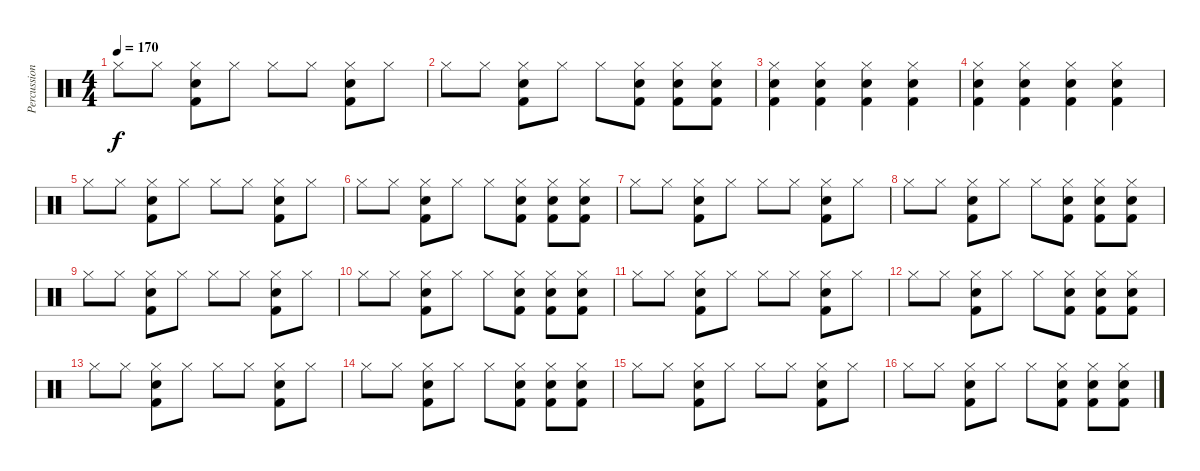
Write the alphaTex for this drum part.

\track ("Percussion" "Percussion") {instrument percussion}
\staff {score}
\articulation defaults
\ts (4 4)
\tempo 170
\clef neutral
\ks c "Hi-Hat (closed)".8{dy f} "Hi-Hat (closed)".8
("Electric Snare (hit)" "Hi-Hat (closed)" "Kick (hit) 2").8 "Hi-Hat (closed)".8 "Hi-Hat (closed)".8 "Hi-Hat (closed)".8 ("Electric Snare (hit)" "Hi-Hat (closed)" "Kick (hit) 2").8 "Hi-Hat (closed)".8 |
"Hi-Hat (closed)".8 "Hi-Hat (closed)".8 ("Electric Snare (hit)" "Hi-Hat (closed)" "Kick (hit) 2").8 "Hi-Hat (closed)".8 "Hi-Hat (closed)".8 ("Electric Snare (hit)" "Hi-Hat (closed)" "Kick (hit) 2").8 ("Electric Snare (hit)" "Hi-Hat (closed)" "Kick (hit) 2").8 ("Electric Snare (hit)" "Hi-Hat (closed)" "Kick (hit) 2").8 |
("Electric Snare (hit)" "Kick (hit) 2" "Hi-Hat (closed)").4 ("Electric Snare (hit)" "Kick (hit) 2" "Hi-Hat (closed)").4 ("Electric Snare (hit)" "Kick (hit) 2" "Hi-Hat (closed)").4 ("Electric Snare (hit)" "Kick (hit) 2" "Hi-Hat (closed)").4 |
("Electric Snare (hit)" "Hi-Hat (closed)" "Kick (hit) 2").4 ("Electric Snare (hit)" "Hi-Hat (closed)" "Kick (hit) 2").4 ("Electric Snare (hit)" "Hi-Hat (closed)" "Kick (hit) 2").4 ("Electric Snare (hit)" "Hi-Hat (closed)" "Kick (hit) 2").4 |
"Hi-Hat (closed)".8 "Hi-Hat (closed)".8 ("Electric Snare (hit)" "Hi-Hat (closed)" "Kick (hit) 2").8 "Hi-Hat (closed)".8 "Hi-Hat (closed)".8 "Hi-Hat (closed)".8 ("Electric Snare (hit)" "Hi-Hat (closed)" "Kick (hit) 2").8 "Hi-Hat (closed)".8 |
"Hi-Hat (closed)".8 "Hi-Hat (closed)".8 ("Electric Snare (hit)" "Hi-Hat (closed)" "Kick (hit) 2").8 "Hi-Hat (closed)".8 "Hi-Hat (closed)".8 ("Electric Snare (hit)" "Hi-Hat (closed)" "Kick (hit) 2").8 ("Electric Snare (hit)" "Hi-Hat (closed)" "Kick (hit) 2").8 ("Electric Snare (hit)" "Hi-Hat (closed)" "Kick (hit) 2").8 |
"Hi-Hat (closed)".8 "Hi-Hat (closed)".8 ("Electric Snare (hit)" "Hi-Hat (closed)" "Kick (hit) 2").8 "Hi-Hat (closed)".8 "Hi-Hat (closed)".8 "Hi-Hat (closed)".8 ("Electric Snare (hit)" "Hi-Hat (closed)" "Kick (hit) 2").8 "Hi-Hat (closed)".8 |
"Hi-Hat (closed)".8 "Hi-Hat (closed)".8 ("Electric Snare (hit)" "Hi-Hat (closed)" "Kick (hit) 2").8 "Hi-Hat (closed)".8 "Hi-Hat (closed)".8 ("Electric Snare (hit)" "Hi-Hat (closed)" "Kick (hit) 2").8 ("Electric Snare (hit)" "Hi-Hat (closed)" "Kick (hit) 2").8 ("Electric Snare (hit)" "Hi-Hat (closed)" "Kick (hit) 2").8 |
"Hi-Hat (closed)".8 "Hi-Hat (closed)".8 ("Electric Snare (hit)" "Hi-Hat (closed)" "Kick (hit) 2").8 "Hi-Hat (closed)".8 "Hi-Hat (closed)".8 "Hi-Hat (closed)".8 ("Electric Snare (hit)" "Hi-Hat (closed)" "Kick (hit) 2").8 "Hi-Hat (closed)".8 |
"Hi-Hat (closed)".8 "Hi-Hat (closed)".8 ("Electric Snare (hit)" "Hi-Hat (closed)" "Kick (hit) 2").8 "Hi-Hat (closed)".8 "Hi-Hat (closed)".8 ("Electric Snare (hit)" "Hi-Hat (closed)" "Kick (hit) 2").8 ("Electric Snare (hit)" "Hi-Hat (closed)" "Kick (hit) 2").8 ("Electric Snare (hit)" "Hi-Hat (closed)" "Kick (hit) 2").8 |
"Hi-Hat (closed)".8 "Hi-Hat (closed)".8 ("Electric Snare (hit)" "Hi-Hat (closed)" "Kick (hit) 2").8 "Hi-Hat (closed)".8 "Hi-Hat (closed)".8 "Hi-Hat (closed)".8 ("Electric Snare (hit)" "Hi-Hat (closed)" "Kick (hit) 2").8 "Hi-Hat (closed)".8 |
"Hi-Hat (closed)".8 "Hi-Hat (closed)".8 ("Electric Snare (hit)" "Hi-Hat (closed)" "Kick (hit) 2").8 "Hi-Hat (closed)".8 "Hi-Hat (closed)".8 ("Electric Snare (hit)" "Hi-Hat (closed)" "Kick (hit) 2").8 ("Electric Snare (hit)" "Hi-Hat (closed)" "Kick (hit) 2").8 ("Electric Snare (hit)" "Hi-Hat (closed)" "Kick (hit) 2").8 |
"Hi-Hat (closed)".8 "Hi-Hat (closed)".8 ("Electric Snare (hit)" "Hi-Hat (closed)" "Kick (hit) 2").8 "Hi-Hat (closed)".8 "Hi-Hat (closed)".8 "Hi-Hat (closed)".8 ("Electric Snare (hit)" "Hi-Hat (closed)" "Kick (hit) 2").8 "Hi-Hat (closed)".8 |
"Hi-Hat (closed)".8 "Hi-Hat (closed)".8 ("Electric Snare (hit)" "Hi-Hat (closed)" "Kick (hit) 2").8 "Hi-Hat (closed)".8 "Hi-Hat (closed)".8 ("Electric Snare (hit)" "Hi-Hat (closed)" "Kick (hit) 2").8 ("Electric Snare (hit)" "Hi-Hat (closed)" "Kick (hit) 2").8 ("Electric Snare (hit)" "Hi-Hat (closed)" "Kick (hit) 2").8 |
"Hi-Hat (closed)".8 "Hi-Hat (closed)".8 ("Electric Snare (hit)" "Hi-Hat (closed)" "Kick (hit) 2").8 "Hi-Hat (closed)".8 "Hi-Hat (closed)".8 "Hi-Hat (closed)".8 ("Electric Snare (hit)" "Hi-Hat (closed)" "Kick (hit) 2").8 "Hi-Hat (closed)".8 |
"Hi-Hat (closed)".8 "Hi-Hat (closed)".8 ("Electric Snare (hit)" "Hi-Hat (closed)" "Kick (hit) 2").8 "Hi-Hat (closed)".8 "Hi-Hat (closed)".8 ("Electric Snare (hit)" "Hi-Hat (closed)" "Kick (hit) 2").8 ("Electric Snare (hit)" "Hi-Hat (closed)" "Kick (hit) 2").8 ("Electric Snare (hit)" "Hi-Hat (closed)" "Kick (hit) 2").8
